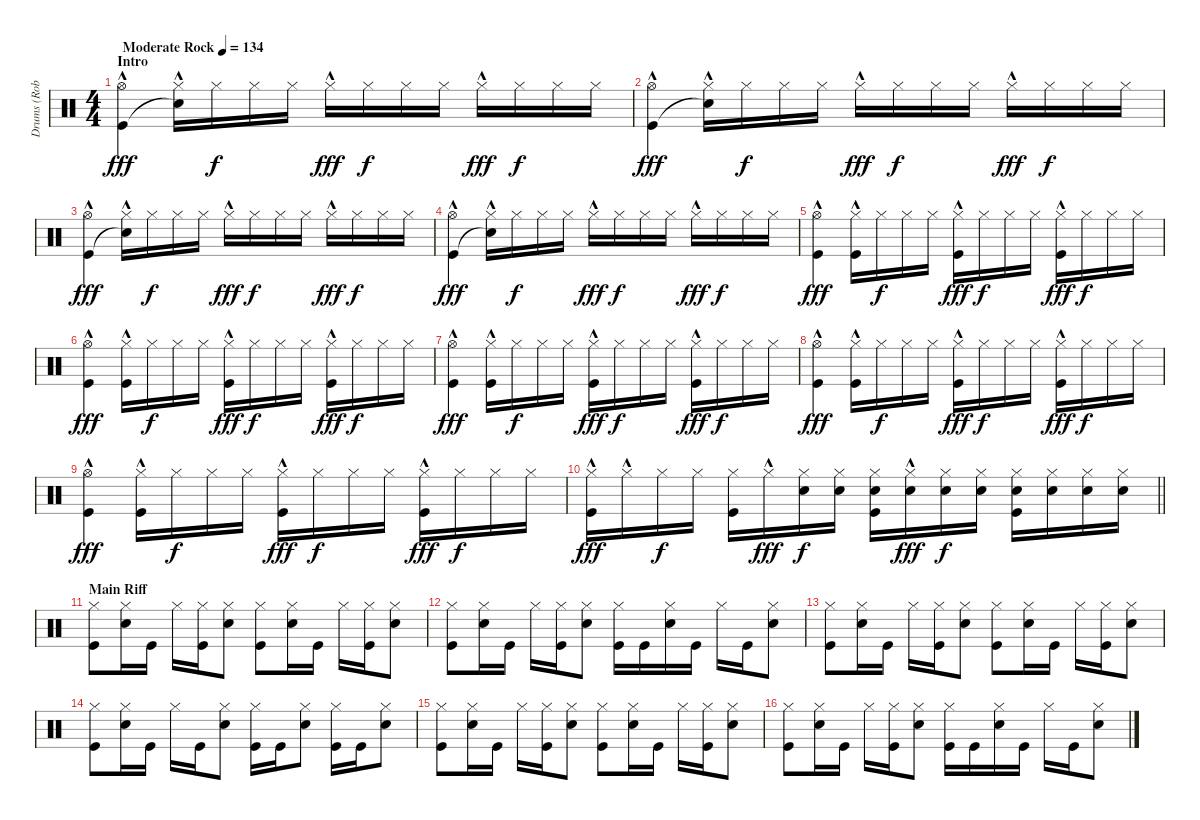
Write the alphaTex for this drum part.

\track ("Drums (Rob Affuso)" "Drums (Rob") {instrument percussion}
\staff {score}
\articulation defaults
\ts (4 4)
\section ("" "Intro")
\tempo (134 "Moderate Rock")
\clef neutral
\ks c
("Hi-Hat (open)" "Kick (hit)"{hac}).4{dy fff} ("Hi-Hat (closed)"{hac} "Snare (hit)"{t}).16 "Hi-Hat (closed)".16{dy f} "Hi-Hat (closed)".16 "Hi-Hat (closed)".16 "Hi-Hat (closed)"{hac}.16{dy fff} "Hi-Hat (closed)".16{dy f} "Hi-Hat (closed)".16 "Hi-Hat (closed)".16 "Hi-Hat (closed)"{hac}.16{dy fff} "Hi-Hat (closed)".16{dy f} "Hi-Hat (closed)".16 "Hi-Hat (closed)".16 |
("Hi-Hat (open)" "Kick (hit)"{hac}).4{dy fff} ("Hi-Hat (closed)"{hac} "Snare (hit)"{t}).16 "Hi-Hat (closed)".16{dy f} "Hi-Hat (closed)".16 "Hi-Hat (closed)".16 "Hi-Hat (closed)"{hac}.16{dy fff} "Hi-Hat (closed)".16{dy f} "Hi-Hat (closed)".16 "Hi-Hat (closed)".16 "Hi-Hat (closed)"{hac}.16{dy fff} "Hi-Hat (closed)".16{dy f} "Hi-Hat (closed)".16 "Hi-Hat (closed)".16 |
("Hi-Hat (open)" "Kick (hit)"{hac}).4{dy fff} ("Hi-Hat (closed)"{hac} "Snare (hit)"{t}).16 "Hi-Hat (closed)".16{dy f} "Hi-Hat (closed)".16 "Hi-Hat (closed)".16 "Hi-Hat (closed)"{hac}.16{dy fff} "Hi-Hat (closed)".16{dy f} "Hi-Hat (closed)".16 "Hi-Hat (closed)".16 "Hi-Hat (closed)"{hac}.16{dy fff} "Hi-Hat (closed)".16{dy f} "Hi-Hat (closed)".16 "Hi-Hat (closed)".16 |
("Hi-Hat (open)" "Kick (hit)"{hac}).4{dy fff} ("Hi-Hat (closed)"{hac} "Snare (hit)"{t}).16 "Hi-Hat (closed)".16{dy f} "Hi-Hat (closed)".16 "Hi-Hat (closed)".16 "Hi-Hat (closed)"{hac}.16{dy fff} "Hi-Hat (closed)".16{dy f} "Hi-Hat (closed)".16 "Hi-Hat (closed)".16 "Hi-Hat (closed)"{hac}.16{dy fff} "Hi-Hat (closed)".16{dy f} "Hi-Hat (closed)".16 "Hi-Hat (closed)".16 |
("Hi-Hat (open)" "Kick (hit)"{hac}).4{dy fff} ("Hi-Hat (closed)"{hac} "Kick (hit)").16 "Hi-Hat (closed)".16{dy f} "Hi-Hat (closed)".16 "Hi-Hat (closed)".16 ("Hi-Hat (closed)"{hac} "Kick (hit)").16{dy fff} "Hi-Hat (closed)".16{dy f} "Hi-Hat (closed)".16 "Hi-Hat (closed)".16 ("Hi-Hat (closed)"{hac} "Kick (hit)").16{dy fff} "Hi-Hat (closed)".16{dy f} "Hi-Hat (closed)".16 "Hi-Hat (closed)".16 |
("Hi-Hat (open)" "Kick (hit)"{hac}).4{dy fff} ("Hi-Hat (closed)"{hac} "Kick (hit)").16 "Hi-Hat (closed)".16{dy f} "Hi-Hat (closed)".16 "Hi-Hat (closed)".16 ("Hi-Hat (closed)"{hac} "Kick (hit)").16{dy fff} "Hi-Hat (closed)".16{dy f} "Hi-Hat (closed)".16 "Hi-Hat (closed)".16 ("Hi-Hat (closed)"{hac} "Kick (hit)").16{dy fff} "Hi-Hat (closed)".16{dy f} "Hi-Hat (closed)".16 "Hi-Hat (closed)".16 |
("Hi-Hat (open)" "Kick (hit)"{hac}).4{dy fff} ("Hi-Hat (closed)"{hac} "Kick (hit)").16 "Hi-Hat (closed)".16{dy f} "Hi-Hat (closed)".16 "Hi-Hat (closed)".16 ("Hi-Hat (closed)"{hac} "Kick (hit)").16{dy fff} "Hi-Hat (closed)".16{dy f} "Hi-Hat (closed)".16 "Hi-Hat (closed)".16 ("Hi-Hat (closed)"{hac} "Kick (hit)").16{dy fff} "Hi-Hat (closed)".16{dy f} "Hi-Hat (closed)".16 "Hi-Hat (closed)".16 |
("Hi-Hat (open)" "Kick (hit)"{hac}).4{dy fff} ("Hi-Hat (closed)"{hac} "Kick (hit)").16 "Hi-Hat (closed)".16{dy f} "Hi-Hat (closed)".16 "Hi-Hat (closed)".16 ("Hi-Hat (closed)"{hac} "Kick (hit)").16{dy fff} "Hi-Hat (closed)".16{dy f} "Hi-Hat (closed)".16 "Hi-Hat (closed)".16 ("Hi-Hat (closed)"{hac} "Kick (hit)").16{dy fff} "Hi-Hat (closed)".16{dy f} "Hi-Hat (closed)".16 "Hi-Hat (closed)".16 |
("Hi-Hat (open)" "Kick (hit)"{hac}).4{dy fff} ("Hi-Hat (closed)"{hac} "Kick (hit)").16 "Hi-Hat (closed)".16{dy f} "Hi-Hat (closed)".16 "Hi-Hat (closed)".16 ("Hi-Hat (closed)"{hac} "Kick (hit)").16{dy fff} "Hi-Hat (closed)".16{dy f} "Hi-Hat (closed)".16 "Hi-Hat (closed)".16 ("Hi-Hat (closed)"{hac} "Kick (hit)").16{dy fff} "Hi-Hat (closed)".16{dy f} "Hi-Hat (closed)".16 "Hi-Hat (closed)".16 |
\barLineRight lightlight
("Hi-Hat (closed)" "Kick (hit)"{hac}).16{dy fff} "Hi-Hat (closed)"{hac}.16 "Hi-Hat (closed)".16{dy f} "Hi-Hat (closed)".16 ("Hi-Hat (closed)" "Kick (hit)").16 "Hi-Hat (closed)"{hac}.16{dy fff} ("Hi-Hat (closed)" "Snare (hit) 2").16{dy f} ("Hi-Hat (closed)" "Snare (hit) 2").16 ("Hi-Hat (closed)" "Snare (hit) 2" "Kick (hit)").16 ("Hi-Hat (closed)"{hac} "Snare (hit) 2").16{dy fff} ("Hi-Hat (closed)" "Snare (hit) 2").16{dy f} ("Hi-Hat (closed)" "Snare (hit) 2").16 ("Hi-Hat (closed)" "Snare (hit) 2" "Kick (hit)").16 ("Hi-Hat (closed)" "Snare (hit) 2").16 ("Hi-Hat (closed)" "Snare (hit) 2").16 ("Hi-Hat (closed)" "Snare (hit) 2").16 |
\section ("" "Main Riff")
("Hi-Hat (closed)" "Kick (hit)").8 ("Hi-Hat (closed)" "Snare (hit) 2").16 "Kick (hit)".16 "Hi-Hat (closed)".16 ("Hi-Hat (closed)" "Kick (hit)").16 ("Hi-Hat (closed)" "Snare (hit) 2").8 ("Hi-Hat (closed)" "Kick (hit)").8 ("Hi-Hat (closed)" "Snare (hit) 2").16 "Kick (hit)".16 "Hi-Hat (closed)".16 ("Hi-Hat (closed)" "Kick (hit)").16 ("Hi-Hat (closed)" "Snare (hit) 2").8 |
("Hi-Hat (closed)" "Kick (hit)").8 ("Hi-Hat (closed)" "Snare (hit) 2").16 "Kick (hit)".16 "Hi-Hat (closed)".16 ("Hi-Hat (closed)" "Kick (hit)").16 ("Hi-Hat (closed)" "Snare (hit) 2").8 ("Hi-Hat (closed)" "Kick (hit)").16 "Kick (hit)".16 ("Hi-Hat (closed)" "Snare (hit) 2").16 "Kick (hit)".16 "Hi-Hat (closed)".16 "Kick (hit)".16 ("Hi-Hat (closed)" "Snare (hit) 2").8 |
("Hi-Hat (closed)" "Kick (hit)").8 ("Hi-Hat (closed)" "Snare (hit) 2").16 "Kick (hit)".16 "Hi-Hat (closed)".16 ("Hi-Hat (closed)" "Kick (hit)").16 ("Hi-Hat (closed)" "Snare (hit) 2").8 ("Hi-Hat (closed)" "Kick (hit)").8 ("Hi-Hat (closed)" "Snare (hit) 2").16 "Kick (hit)".16 "Hi-Hat (closed)".16 ("Hi-Hat (closed)" "Kick (hit)").16 ("Hi-Hat (closed)" "Snare (hit) 2").8 |
("Hi-Hat (closed)" "Kick (hit)").8 ("Hi-Hat (closed)" "Snare (hit) 2").16 "Kick (hit)".16 "Hi-Hat (closed)".16 "Kick (hit)".16 ("Hi-Hat (closed)" "Snare (hit) 2").8 ("Hi-Hat (closed)" "Kick (hit)").16 "Kick (hit)".16 ("Hi-Hat (closed)" "Snare (hit) 2").8 ("Hi-Hat (closed)" "Kick (hit)").16 "Kick (hit)".16 ("Hi-Hat (closed)" "Snare (hit) 2").8 |
("Hi-Hat (closed)" "Kick (hit)").8 ("Hi-Hat (closed)" "Snare (hit) 2").16 "Kick (hit)".16 "Hi-Hat (closed)".16 ("Hi-Hat (closed)" "Kick (hit)").16 ("Hi-Hat (closed)" "Snare (hit) 2").8 ("Hi-Hat (closed)" "Kick (hit)").8 ("Hi-Hat (closed)" "Snare (hit) 2").16 "Kick (hit)".16 "Hi-Hat (closed)".16 ("Hi-Hat (closed)" "Kick (hit)").16 ("Hi-Hat (closed)" "Snare (hit) 2").8 |
("Hi-Hat (closed)" "Kick (hit)").8 ("Hi-Hat (closed)" "Snare (hit) 2").16 "Kick (hit)".16 "Hi-Hat (closed)".16 ("Hi-Hat (closed)" "Kick (hit)").16 ("Hi-Hat (closed)" "Snare (hit) 2").8 ("Hi-Hat (closed)" "Kick (hit)").16 "Kick (hit)".16 ("Hi-Hat (closed)" "Snare (hit) 2").16 "Kick (hit)".16 "Hi-Hat (closed)".16 "Kick (hit)".16 ("Hi-Hat (closed)" "Snare (hit) 2").8
